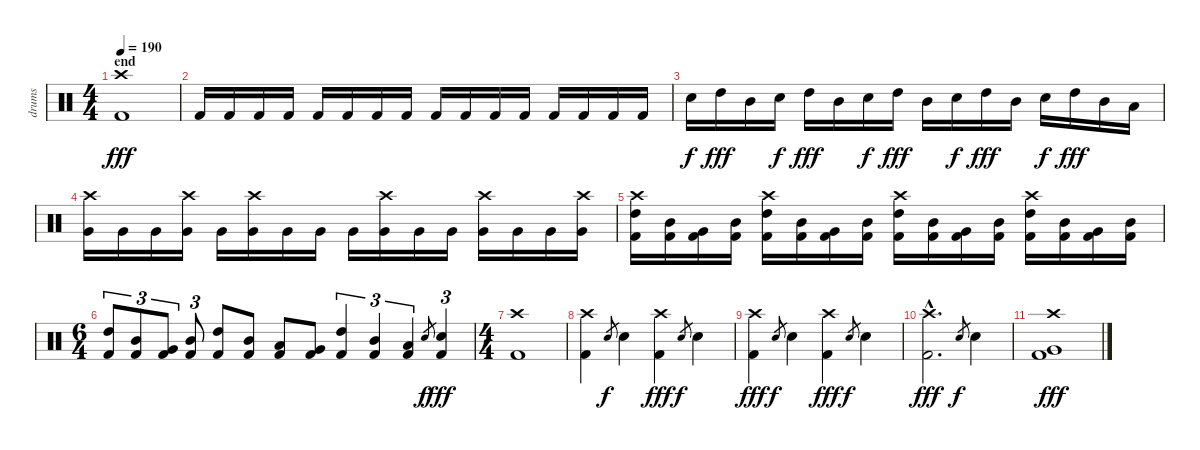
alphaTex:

\track ("drums" "drums") {instrument percussion}
\staff {score}
\articulation defaults
\ts (4 4)
\section ("" "end")
\tempo 190
\clef neutral
\ks c
("Crash high (hit)" "Kick (hit) 2").1{dy fff} |
"Kick (hit) 2".16 "Kick (hit) 2".16 "Kick (hit) 2".16 "Kick (hit) 2".16 "Kick (hit) 2".16 "Kick (hit) 2".16 "Kick (hit) 2".16 "Kick (hit) 2".16 "Kick (hit) 2".16 "Kick (hit) 2".16 "Kick (hit) 2".16 "Kick (hit) 2".16 "Kick (hit) 2".16 "Kick (hit) 2".16 "Kick (hit) 2".16 "Kick (hit) 2".16 |
"Snare (hit) 2".16{dy f} "High Tom (hit)".16{dy fff} "Mid Tom (hit)".16 "Snare (hit) 2".16{dy f} "High Tom (hit)".16{dy fff} "Mid Tom (hit)".16 "Snare (hit) 2".16{dy f} "High Tom (hit)".16{dy fff} "Mid Tom (hit)".16 "Snare (hit) 2".16{dy f} "High Tom (hit)".16{dy fff} "Mid Tom (hit)".16 "Snare (hit) 2".16{dy f} "High Tom (hit)".16{dy fff} "Mid Tom (hit)".16 "Low Tom (hit)".16 |
("Crash high (hit)" "Very Low Tom (hit)").16 "Very Low Tom (hit)".16 "Very Low Tom (hit)".16 ("Crash high (hit)" "Very Low Tom (hit)").16 "Very Low Tom (hit)".16 ("Crash high (hit)" "Very Low Tom (hit)").16 "Very Low Tom (hit)".16 "Very Low Tom (hit)".16 "Very Low Tom (hit)".16 ("Crash high (hit)" "Very Low Tom (hit)").16 "Very Low Tom (hit)".16 "Very Low Tom (hit)".16 ("Crash high (hit)" "Very Low Tom (hit)").16 "Very Low Tom (hit)".16 "Very Low Tom (hit)".16 ("Crash high (hit)" "Very Low Tom (hit)").16 |
("Crash high (hit)" "High Tom (hit)" "Kick (hit) 2").16 ("Mid Tom (hit)" "Kick (hit) 2").16 ("Very Low Tom (hit)" "Kick (hit) 2").16 ("Mid Tom (hit)" "Kick (hit) 2").16 ("Crash high (hit)" "High Tom (hit)" "Kick (hit) 2").16 ("Mid Tom (hit)" "Kick (hit) 2").16 ("Very Low Tom (hit)" "Kick (hit) 2").16 ("Mid Tom (hit)" "Kick (hit) 2").16 ("Crash high (hit)" "High Tom (hit)" "Kick (hit) 2").16 ("Mid Tom (hit)" "Kick (hit) 2").16 ("Very Low Tom (hit)" "Kick (hit) 2").16 ("Mid Tom (hit)" "Kick (hit) 2").16 ("Crash high (hit)" "High Tom (hit)" "Kick (hit) 2").16 ("Mid Tom (hit)" "Kick (hit) 2").16 ("Very Low Tom (hit)" "Kick (hit) 2").16 ("Mid Tom (hit)" "Kick (hit) 2").16 |
\ts (6 4)
("High Tom (hit)" "Kick (hit) 2").8{tu (3 2)} ("Mid Tom (hit)" "Kick (hit) 2").8{tu (3 2)} ("Very Low Tom (hit)" "Kick (hit) 2").8{tu (3 2)} ("Mid Tom (hit)" "Kick (hit) 2").8{tu (3 2)} ("High Tom (hit)" "Kick (hit) 2").8 ("Mid Tom (hit)" "Kick (hit) 2").8 ("Low Tom (hit)" "Kick (hit) 2").8 ("Very Low Tom (hit)" "Kick (hit) 2").8 ("High Tom (hit)" "Kick (hit) 2").4{tu (3 2)} ("Mid Tom (hit)" "Kick (hit) 2").4{tu (3 2)} ("Low Tom (hit)" "Kick (hit) 2").4{tu (3 2)} "Snare (hit) 2".8{gr dy f} ("Snare (hit) 2" "Kick (hit) 2").4{tu (3 2) dy fff} |
\ts (4 4)
("Crash high (hit)" "Kick (hit) 2").1 |
("Crash high (hit)" "Kick (hit) 2").4 "Snare (hit) 2".8{gr dy f} "Snare (hit) 2".4 ("Crash high (hit)" "Kick (hit) 2").4{dy fff} "Snare (hit) 2".8{gr dy f} "Snare (hit) 2".4 |
("Crash high (hit)" "Kick (hit) 2").4{dy fff} "Snare (hit) 2".8{gr dy f} "Snare (hit) 2".4 ("Crash high (hit)" "Kick (hit) 2").4{dy fff} "Snare (hit) 2".8{gr dy f} "Snare (hit) 2".4 |
("Crash high (hit)"{hac} "Kick (hit) 2"{hac}).2{d dy fff} "Snare (hit) 2".8{gr dy f} "Snare (hit) 2".4 |
("Crash high (hit)" "Very Low Tom (hit)" "Kick (hit) 2").1{dy fff}
